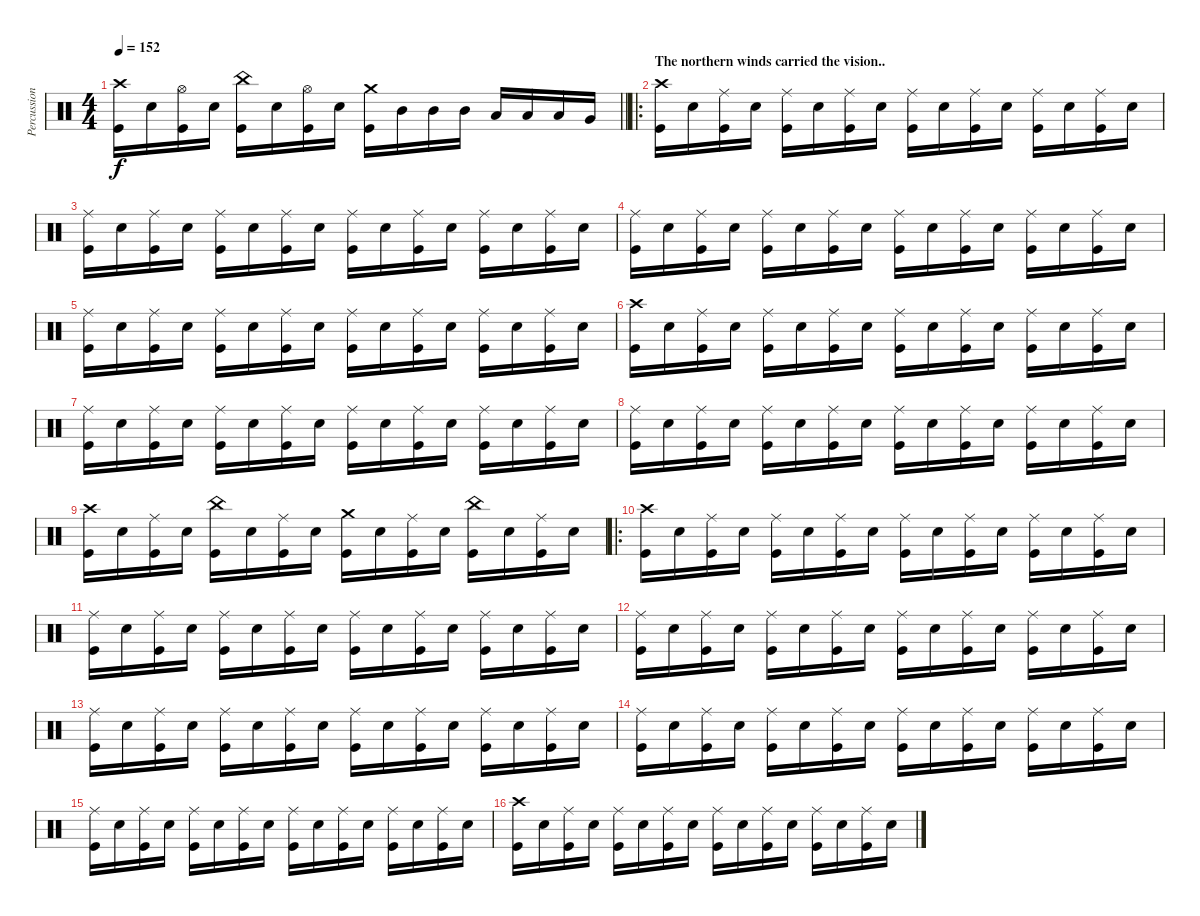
\track ("Percussion" "Percussion") {instrument percussion}
\staff {score}
\articulation defaults
\ts (4 4)
\tempo 152
\clef neutral
\barLineRight lightlight
\ks c
("Crash high (hit)" "Kick (hit)").16{dy f} "Snare (hit) 2".16 ("Hi-Hat (open)" "Kick (hit)").16 "Snare (hit) 2".16 ("China (hit)" "Kick (hit)").16 "Snare (hit) 2".16 ("Hi-Hat (open)" "Kick (hit)").16 "Snare (hit) 2".16 ("Crash medium (hit)" "Kick (hit)").16 "Mid Tom (hit)".16 "Mid Tom (hit)".16 "Mid Tom (hit)".16 "Low Tom (hit)".16 "Low Tom (hit)".16 "Low Tom (hit)".16 "Very Low Tom (hit)".16 |
\ro
\section ("" "The northern winds carried the vision..")
("Crash high (hit)" "Kick (hit)").16 "Snare (hit) 2".16 ("Ride (middle)" "Kick (hit)").16 "Snare (hit) 2".16 ("Ride (middle)" "Kick (hit)").16 "Snare (hit) 2".16 ("Ride (middle)" "Kick (hit)").16 "Snare (hit) 2".16 ("Ride (middle)" "Kick (hit)").16 "Snare (hit) 2".16 ("Ride (middle)" "Kick (hit)").16 "Snare (hit) 2".16 ("Ride (middle)" "Kick (hit)").16 "Snare (hit) 2".16 ("Ride (middle)" "Kick (hit)").16 "Snare (hit) 2".16 |
("Ride (middle)" "Kick (hit)").16 "Snare (hit) 2".16 ("Ride (middle)" "Kick (hit)").16 "Snare (hit) 2".16 ("Ride (middle)" "Kick (hit)").16 "Snare (hit) 2".16 ("Ride (middle)" "Kick (hit)").16 "Snare (hit) 2".16 ("Ride (middle)" "Kick (hit)").16 "Snare (hit) 2".16 ("Ride (middle)" "Kick (hit)").16 "Snare (hit) 2".16 ("Ride (middle)" "Kick (hit)").16 "Snare (hit) 2".16 ("Ride (middle)" "Kick (hit)").16 "Snare (hit) 2".16 |
("Ride (middle)" "Kick (hit)").16 "Snare (hit) 2".16 ("Ride (middle)" "Kick (hit)").16 "Snare (hit) 2".16 ("Ride (middle)" "Kick (hit)").16 "Snare (hit) 2".16 ("Ride (middle)" "Kick (hit)").16 "Snare (hit) 2".16 ("Ride (middle)" "Kick (hit)").16 "Snare (hit) 2".16 ("Ride (middle)" "Kick (hit)").16 "Snare (hit) 2".16 ("Ride (middle)" "Kick (hit)").16 "Snare (hit) 2".16 ("Ride (middle)" "Kick (hit)").16 "Snare (hit) 2".16 |
("Ride (middle)" "Kick (hit)").16 "Snare (hit) 2".16 ("Ride (middle)" "Kick (hit)").16 "Snare (hit) 2".16 ("Ride (middle)" "Kick (hit)").16 "Snare (hit) 2".16 ("Ride (middle)" "Kick (hit)").16 "Snare (hit) 2".16 ("Ride (middle)" "Kick (hit)").16 "Snare (hit) 2".16 ("Ride (middle)" "Kick (hit)").16 "Snare (hit) 2".16 ("Ride (middle)" "Kick (hit)").16 "Snare (hit) 2".16 ("Ride (middle)" "Kick (hit)").16 "Snare (hit) 2".16 |
("Crash high (hit)" "Kick (hit)").16 "Snare (hit) 2".16 ("Ride (middle)" "Kick (hit)").16 "Snare (hit) 2".16 ("Ride (middle)" "Kick (hit)").16 "Snare (hit) 2".16 ("Ride (middle)" "Kick (hit)").16 "Snare (hit) 2".16 ("Ride (middle)" "Kick (hit)").16 "Snare (hit) 2".16 ("Ride (middle)" "Kick (hit)").16 "Snare (hit) 2".16 ("Ride (middle)" "Kick (hit)").16 "Snare (hit) 2".16 ("Ride (middle)" "Kick (hit)").16 "Snare (hit) 2".16 |
("Ride (middle)" "Kick (hit)").16 "Snare (hit) 2".16 ("Ride (middle)" "Kick (hit)").16 "Snare (hit) 2".16 ("Ride (middle)" "Kick (hit)").16 "Snare (hit) 2".16 ("Ride (middle)" "Kick (hit)").16 "Snare (hit) 2".16 ("Ride (middle)" "Kick (hit)").16 "Snare (hit) 2".16 ("Ride (middle)" "Kick (hit)").16 "Snare (hit) 2".16 ("Ride (middle)" "Kick (hit)").16 "Snare (hit) 2".16 ("Ride (middle)" "Kick (hit)").16 "Snare (hit) 2".16 |
("Ride (middle)" "Kick (hit)").16 "Snare (hit) 2".16 ("Ride (middle)" "Kick (hit)").16 "Snare (hit) 2".16 ("Ride (middle)" "Kick (hit)").16 "Snare (hit) 2".16 ("Ride (middle)" "Kick (hit)").16 "Snare (hit) 2".16 ("Ride (middle)" "Kick (hit)").16 "Snare (hit) 2".16 ("Ride (middle)" "Kick (hit)").16 "Snare (hit) 2".16 ("Ride (middle)" "Kick (hit)").16 "Snare (hit) 2".16 ("Ride (middle)" "Kick (hit)").16 "Snare (hit) 2".16 |
("Crash high (hit)" "Kick (hit)").16 "Snare (hit) 2".16 ("Ride (middle)" "Kick (hit)").16 "Snare (hit) 2".16 ("China (hit)" "Kick (hit)").16 "Snare (hit) 2".16 ("Ride (middle)" "Kick (hit)").16 "Snare (hit) 2".16 ("Crash medium (hit)" "Kick (hit)").16 "Snare (hit) 2".16 ("Ride (middle)" "Kick (hit)").16 "Snare (hit) 2".16 ("China (hit)" "Kick (hit)").16 "Snare (hit) 2".16 ("Ride (middle)" "Kick (hit)").16 "Snare (hit) 2".16 |
\ro
("Crash high (hit)" "Kick (hit)").16 "Snare (hit) 2".16 ("Ride (middle)" "Kick (hit)").16 "Snare (hit) 2".16 ("Ride (middle)" "Kick (hit)").16 "Snare (hit) 2".16 ("Ride (middle)" "Kick (hit)").16 "Snare (hit) 2".16 ("Ride (middle)" "Kick (hit)").16 "Snare (hit) 2".16 ("Ride (middle)" "Kick (hit)").16 "Snare (hit) 2".16 ("Ride (middle)" "Kick (hit)").16 "Snare (hit) 2".16 ("Ride (middle)" "Kick (hit)").16 "Snare (hit) 2".16 |
("Ride (middle)" "Kick (hit)").16 "Snare (hit) 2".16 ("Ride (middle)" "Kick (hit)").16 "Snare (hit) 2".16 ("Ride (middle)" "Kick (hit)").16 "Snare (hit) 2".16 ("Ride (middle)" "Kick (hit)").16 "Snare (hit) 2".16 ("Ride (middle)" "Kick (hit)").16 "Snare (hit) 2".16 ("Ride (middle)" "Kick (hit)").16 "Snare (hit) 2".16 ("Ride (middle)" "Kick (hit)").16 "Snare (hit) 2".16 ("Ride (middle)" "Kick (hit)").16 "Snare (hit) 2".16 |
("Ride (middle)" "Kick (hit)").16 "Snare (hit) 2".16 ("Ride (middle)" "Kick (hit)").16 "Snare (hit) 2".16 ("Ride (middle)" "Kick (hit)").16 "Snare (hit) 2".16 ("Ride (middle)" "Kick (hit)").16 "Snare (hit) 2".16 ("Ride (middle)" "Kick (hit)").16 "Snare (hit) 2".16 ("Ride (middle)" "Kick (hit)").16 "Snare (hit) 2".16 ("Ride (middle)" "Kick (hit)").16 "Snare (hit) 2".16 ("Ride (middle)" "Kick (hit)").16 "Snare (hit) 2".16 |
("Ride (middle)" "Kick (hit)").16 "Snare (hit) 2".16 ("Ride (middle)" "Kick (hit)").16 "Snare (hit) 2".16 ("Ride (middle)" "Kick (hit)").16 "Snare (hit) 2".16 ("Ride (middle)" "Kick (hit)").16 "Snare (hit) 2".16 ("Ride (middle)" "Kick (hit)").16 "Snare (hit) 2".16 ("Ride (middle)" "Kick (hit)").16 "Snare (hit) 2".16 ("Ride (middle)" "Kick (hit)").16 "Snare (hit) 2".16 ("Ride (middle)" "Kick (hit)").16 "Snare (hit) 2".16 |
("Ride (middle)" "Kick (hit)").16 "Snare (hit) 2".16 ("Ride (middle)" "Kick (hit)").16 "Snare (hit) 2".16 ("Ride (middle)" "Kick (hit)").16 "Snare (hit) 2".16 ("Ride (middle)" "Kick (hit)").16 "Snare (hit) 2".16 ("Ride (middle)" "Kick (hit)").16 "Snare (hit) 2".16 ("Ride (middle)" "Kick (hit)").16 "Snare (hit) 2".16 ("Ride (middle)" "Kick (hit)").16 "Snare (hit) 2".16 ("Ride (middle)" "Kick (hit)").16 "Snare (hit) 2".16 |
("Ride (middle)" "Kick (hit)").16 "Snare (hit) 2".16 ("Ride (middle)" "Kick (hit)").16 "Snare (hit) 2".16 ("Ride (middle)" "Kick (hit)").16 "Snare (hit) 2".16 ("Ride (middle)" "Kick (hit)").16 "Snare (hit) 2".16 ("Ride (middle)" "Kick (hit)").16 "Snare (hit) 2".16 ("Ride (middle)" "Kick (hit)").16 "Snare (hit) 2".16 ("Ride (middle)" "Kick (hit)").16 "Snare (hit) 2".16 ("Ride (middle)" "Kick (hit)").16 "Snare (hit) 2".16 |
("Crash high (hit)" "Kick (hit)").16 "Snare (hit) 2".16 ("Ride (middle)" "Kick (hit)").16 "Snare (hit) 2".16 ("Ride (middle)" "Kick (hit)").16 "Snare (hit) 2".16 ("Ride (middle)" "Kick (hit)").16 "Snare (hit) 2".16 ("Ride (middle)" "Kick (hit)").16 "Snare (hit) 2".16 ("Ride (middle)" "Kick (hit)").16 "Snare (hit) 2".16 ("Ride (middle)" "Kick (hit)").16 "Snare (hit) 2".16 ("Ride (middle)" "Kick (hit)").16 "Snare (hit) 2".16
